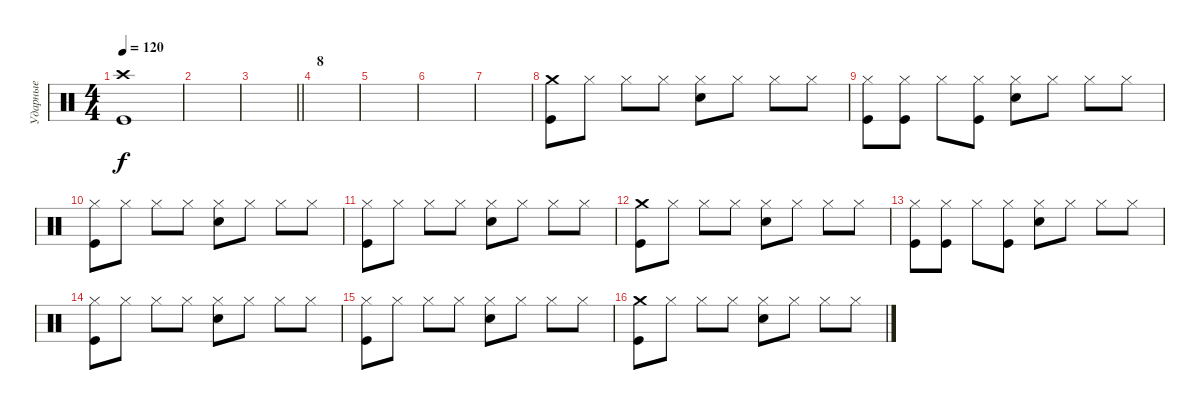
\track ("Ударные" "Ударные") {instrument percussion}
\staff {score}
\articulation defaults
\ts (4 4)
\tempo 120
\clef neutral
\ks c
("Crash high (hit)" "Kick (hit)").1{dy f} |
|
\barLineRight lightlight
|
\section ("" "8")
|
|
|
|
("Crash medium (hit)" "Kick (hit)").8 "Hi-Hat (closed)".8 "Hi-Hat (closed)".8 "Hi-Hat (closed)".8 ("Hi-Hat (closed)" "Electric Snare (hit)").8 "Hi-Hat (closed)".8 "Hi-Hat (closed)".8 "Hi-Hat (closed)".8 |
("Hi-Hat (closed)" "Kick (hit)").8 ("Hi-Hat (closed)" "Kick (hit)").8 "Hi-Hat (closed)".8 ("Hi-Hat (closed)" "Kick (hit)").8 ("Hi-Hat (closed)" "Electric Snare (hit)").8 "Hi-Hat (closed)".8 "Hi-Hat (closed)".8 "Hi-Hat (closed)".8 |
("Hi-Hat (closed)" "Kick (hit)").8 "Hi-Hat (closed)".8 "Hi-Hat (closed)".8 "Hi-Hat (closed)".8 ("Hi-Hat (closed)" "Electric Snare (hit)").8 "Hi-Hat (closed)".8 "Hi-Hat (closed)".8 "Hi-Hat (closed)".8 |
("Hi-Hat (closed)" "Kick (hit)").8 "Hi-Hat (closed)".8 "Hi-Hat (closed)".8 "Hi-Hat (closed)".8 ("Hi-Hat (closed)" "Electric Snare (hit)").8 "Hi-Hat (closed)".8 "Hi-Hat (closed)".8 "Hi-Hat (closed)".8 |
("Crash medium (hit)" "Kick (hit)").8 "Hi-Hat (closed)".8 "Hi-Hat (closed)".8 "Hi-Hat (closed)".8 ("Hi-Hat (closed)" "Electric Snare (hit)").8 "Hi-Hat (closed)".8 "Hi-Hat (closed)".8 "Hi-Hat (closed)".8 |
("Hi-Hat (closed)" "Kick (hit)").8 ("Hi-Hat (closed)" "Kick (hit)").8 "Hi-Hat (closed)".8 ("Hi-Hat (closed)" "Kick (hit)").8 ("Hi-Hat (closed)" "Electric Snare (hit)").8 "Hi-Hat (closed)".8 "Hi-Hat (closed)".8 "Hi-Hat (closed)".8 |
("Hi-Hat (closed)" "Kick (hit)").8 "Hi-Hat (closed)".8 "Hi-Hat (closed)".8 "Hi-Hat (closed)".8 ("Hi-Hat (closed)" "Electric Snare (hit)").8 "Hi-Hat (closed)".8 "Hi-Hat (closed)".8 "Hi-Hat (closed)".8 |
("Hi-Hat (closed)" "Kick (hit)").8 "Hi-Hat (closed)".8 "Hi-Hat (closed)".8 "Hi-Hat (closed)".8 ("Hi-Hat (closed)" "Electric Snare (hit)").8 "Hi-Hat (closed)".8 "Hi-Hat (closed)".8 "Hi-Hat (closed)".8 |
("Crash medium (hit)" "Kick (hit)").8 "Hi-Hat (closed)".8 "Hi-Hat (closed)".8 "Hi-Hat (closed)".8 ("Hi-Hat (closed)" "Electric Snare (hit)").8 "Hi-Hat (closed)".8 "Hi-Hat (closed)".8 "Hi-Hat (closed)".8
